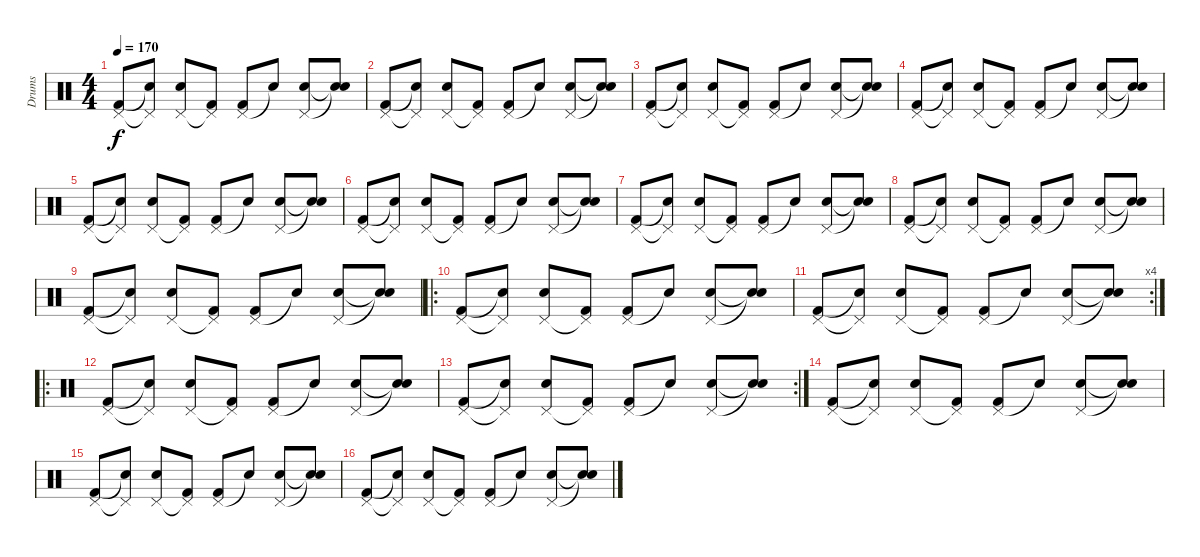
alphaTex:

\track ("Drums" "Drums") {instrument percussion}
\staff {score}
\articulation defaults
\ts (4 4)
\tempo 170
\clef neutral
\ks c
("Pedal Hi-Hat (hit)" "Kick (hit) 2").8{dy f} ("Pedal Hi-Hat (hit)"{t} "Snare (hit)"{t}).8 ("Pedal Hi-Hat (hit)" "Snare (hit) 2").8 ("Pedal Hi-Hat (hit)"{t} "Kick (hit) 2").8 ("Pedal Hi-Hat (hit)" "Kick (hit) 2").8 "Snare (hit)"{t}.8 ("Pedal Hi-Hat (hit)" "Snare (hit) 2").8 ("Snare (hit)"{t} "Snare (hit)"{t}).8 |
("Pedal Hi-Hat (hit)" "Kick (hit) 2").8 ("Pedal Hi-Hat (hit)"{t} "Snare (hit)"{t}).8 ("Pedal Hi-Hat (hit)" "Snare (hit) 2").8 ("Pedal Hi-Hat (hit)"{t} "Kick (hit) 2").8 ("Pedal Hi-Hat (hit)" "Kick (hit) 2").8 "Snare (hit)"{t}.8 ("Pedal Hi-Hat (hit)" "Snare (hit) 2").8 ("Snare (hit)"{t} "Snare (hit)"{t}).8 |
("Pedal Hi-Hat (hit)" "Kick (hit) 2").8 ("Pedal Hi-Hat (hit)"{t} "Snare (hit)"{t}).8 ("Pedal Hi-Hat (hit)" "Snare (hit) 2").8 ("Pedal Hi-Hat (hit)"{t} "Kick (hit) 2").8 ("Pedal Hi-Hat (hit)" "Kick (hit) 2").8 "Snare (hit)"{t}.8 ("Pedal Hi-Hat (hit)" "Snare (hit) 2").8 ("Snare (hit)"{t} "Snare (hit)"{t}).8 |
("Pedal Hi-Hat (hit)" "Kick (hit) 2").8 ("Pedal Hi-Hat (hit)"{t} "Snare (hit)"{t}).8 ("Pedal Hi-Hat (hit)" "Snare (hit) 2").8 ("Pedal Hi-Hat (hit)"{t} "Kick (hit) 2").8 ("Pedal Hi-Hat (hit)" "Kick (hit) 2").8 "Snare (hit)"{t}.8 ("Pedal Hi-Hat (hit)" "Snare (hit) 2").8 ("Snare (hit)"{t} "Snare (hit)"{t}).8 |
("Pedal Hi-Hat (hit)" "Kick (hit) 2").8 ("Pedal Hi-Hat (hit)"{t} "Snare (hit)"{t}).8 ("Pedal Hi-Hat (hit)" "Snare (hit) 2").8 ("Pedal Hi-Hat (hit)"{t} "Kick (hit) 2").8 ("Pedal Hi-Hat (hit)" "Kick (hit) 2").8 "Snare (hit)"{t}.8 ("Pedal Hi-Hat (hit)" "Snare (hit) 2").8 ("Snare (hit)"{t} "Snare (hit)"{t}).8 |
("Pedal Hi-Hat (hit)" "Kick (hit) 2").8 ("Pedal Hi-Hat (hit)"{t} "Snare (hit)"{t}).8 ("Pedal Hi-Hat (hit)" "Snare (hit) 2").8 ("Pedal Hi-Hat (hit)"{t} "Kick (hit) 2").8 ("Pedal Hi-Hat (hit)" "Kick (hit) 2").8 "Snare (hit)"{t}.8 ("Pedal Hi-Hat (hit)" "Snare (hit) 2").8 ("Snare (hit)"{t} "Snare (hit)"{t}).8 |
("Pedal Hi-Hat (hit)" "Kick (hit) 2").8 ("Pedal Hi-Hat (hit)"{t} "Snare (hit)"{t}).8 ("Pedal Hi-Hat (hit)" "Snare (hit) 2").8 ("Pedal Hi-Hat (hit)"{t} "Kick (hit) 2").8 ("Pedal Hi-Hat (hit)" "Kick (hit) 2").8 "Snare (hit)"{t}.8 ("Pedal Hi-Hat (hit)" "Snare (hit) 2").8 ("Snare (hit)"{t} "Snare (hit)"{t}).8 |
("Pedal Hi-Hat (hit)" "Kick (hit) 2").8 ("Pedal Hi-Hat (hit)"{t} "Snare (hit)"{t}).8 ("Pedal Hi-Hat (hit)" "Snare (hit) 2").8 ("Pedal Hi-Hat (hit)"{t} "Kick (hit) 2").8 ("Pedal Hi-Hat (hit)" "Kick (hit) 2").8 "Snare (hit)"{t}.8 ("Pedal Hi-Hat (hit)" "Snare (hit) 2").8 ("Snare (hit)"{t} "Snare (hit)"{t}).8 |
("Pedal Hi-Hat (hit)" "Kick (hit) 2").8 ("Pedal Hi-Hat (hit)"{t} "Snare (hit)"{t}).8 ("Pedal Hi-Hat (hit)" "Snare (hit) 2").8 ("Pedal Hi-Hat (hit)"{t} "Kick (hit) 2").8 ("Pedal Hi-Hat (hit)" "Kick (hit) 2").8 "Snare (hit)"{t}.8 ("Pedal Hi-Hat (hit)" "Snare (hit) 2").8 ("Snare (hit)"{t} "Snare (hit)"{t}).8 |
\ro
("Pedal Hi-Hat (hit)" "Kick (hit) 2").8 ("Pedal Hi-Hat (hit)"{t} "Snare (hit)"{t}).8 ("Pedal Hi-Hat (hit)" "Snare (hit) 2").8 ("Pedal Hi-Hat (hit)"{t} "Kick (hit) 2").8 ("Pedal Hi-Hat (hit)" "Kick (hit) 2").8 "Snare (hit)"{t}.8 ("Pedal Hi-Hat (hit)" "Snare (hit) 2").8 ("Snare (hit)"{t} "Snare (hit)"{t}).8 |
\rc 4
("Pedal Hi-Hat (hit)" "Kick (hit) 2").8 ("Pedal Hi-Hat (hit)"{t} "Snare (hit)"{t}).8 ("Pedal Hi-Hat (hit)" "Snare (hit) 2").8 ("Pedal Hi-Hat (hit)"{t} "Kick (hit) 2").8 ("Pedal Hi-Hat (hit)" "Kick (hit) 2").8 "Snare (hit)"{t}.8 ("Pedal Hi-Hat (hit)" "Snare (hit) 2").8 ("Snare (hit)"{t} "Snare (hit)"{t}).8 |
\ro
("Pedal Hi-Hat (hit)" "Kick (hit) 2").8 ("Pedal Hi-Hat (hit)"{t} "Snare (hit)"{t}).8 ("Pedal Hi-Hat (hit)" "Snare (hit) 2").8 ("Pedal Hi-Hat (hit)"{t} "Kick (hit) 2").8 ("Pedal Hi-Hat (hit)" "Kick (hit) 2").8 "Snare (hit)"{t}.8 ("Pedal Hi-Hat (hit)" "Snare (hit) 2").8 ("Snare (hit)"{t} "Snare (hit)"{t}).8 |
\rc 2
("Pedal Hi-Hat (hit)" "Kick (hit) 2").8 ("Pedal Hi-Hat (hit)"{t} "Snare (hit)"{t}).8 ("Pedal Hi-Hat (hit)" "Snare (hit) 2").8 ("Pedal Hi-Hat (hit)"{t} "Kick (hit) 2").8 ("Pedal Hi-Hat (hit)" "Kick (hit) 2").8 "Snare (hit)"{t}.8 ("Pedal Hi-Hat (hit)" "Snare (hit) 2").8 ("Snare (hit)"{t} "Snare (hit)"{t}).8 |
("Pedal Hi-Hat (hit)" "Kick (hit) 2").8 ("Pedal Hi-Hat (hit)"{t} "Snare (hit)"{t}).8 ("Pedal Hi-Hat (hit)" "Snare (hit) 2").8 ("Pedal Hi-Hat (hit)"{t} "Kick (hit) 2").8 ("Pedal Hi-Hat (hit)" "Kick (hit) 2").8 "Snare (hit)"{t}.8 ("Pedal Hi-Hat (hit)" "Snare (hit) 2").8 ("Snare (hit)"{t} "Snare (hit)"{t}).8 |
("Pedal Hi-Hat (hit)" "Kick (hit) 2").8 ("Pedal Hi-Hat (hit)"{t} "Snare (hit)"{t}).8 ("Pedal Hi-Hat (hit)" "Snare (hit) 2").8 ("Pedal Hi-Hat (hit)"{t} "Kick (hit) 2").8 ("Pedal Hi-Hat (hit)" "Kick (hit) 2").8 "Snare (hit)"{t}.8 ("Pedal Hi-Hat (hit)" "Snare (hit) 2").8 ("Snare (hit)"{t} "Snare (hit)"{t}).8 |
("Pedal Hi-Hat (hit)" "Kick (hit) 2").8 ("Pedal Hi-Hat (hit)"{t} "Snare (hit)"{t}).8 ("Pedal Hi-Hat (hit)" "Snare (hit) 2").8 ("Pedal Hi-Hat (hit)"{t} "Kick (hit) 2").8 ("Pedal Hi-Hat (hit)" "Kick (hit) 2").8 "Snare (hit)"{t}.8 ("Pedal Hi-Hat (hit)" "Snare (hit) 2").8 ("Snare (hit)"{t} "Snare (hit)"{t}).8
